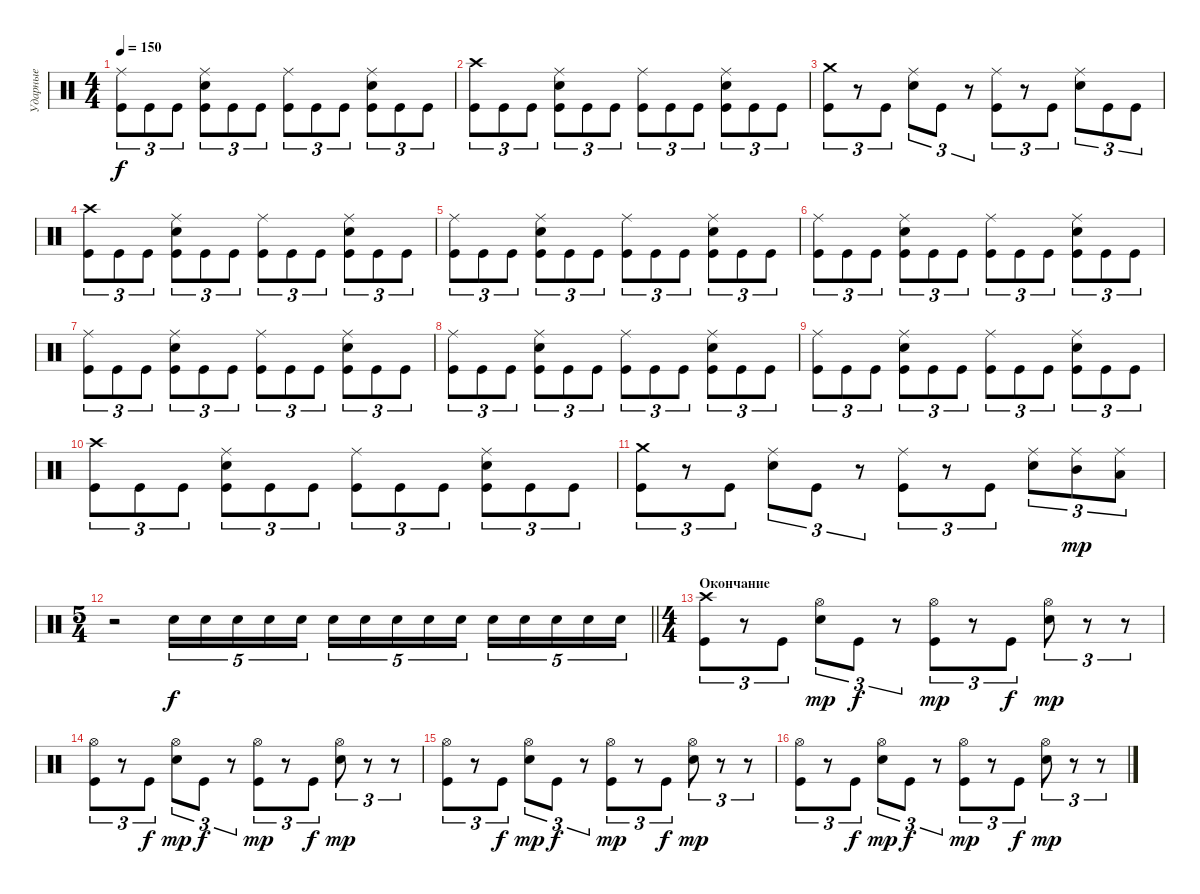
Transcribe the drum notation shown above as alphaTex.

\track ("Ударные" "Ударные") {instrument percussion}
\staff {score}
\articulation defaults
\ts (4 4)
\tempo 150
\clef neutral
\ks c
("Ride (middle)" "Kick (hit)").8{tu (3 2) dy f} "Kick (hit)".8{tu (3 2)} "Kick (hit)".8{tu (3 2)} ("Ride (middle)" "Snare (hit) 2" "Kick (hit)").8{tu (3 2)} "Kick (hit)".8{tu (3 2)} "Kick (hit)".8{tu (3 2)} ("Ride (middle)" "Kick (hit)").8{tu (3 2)} "Kick (hit)".8{tu (3 2)} "Kick (hit)".8{tu (3 2)} ("Ride (middle)" "Snare (hit) 2" "Kick (hit)").8{tu (3 2)} "Kick (hit)".8{tu (3 2)} "Kick (hit)".8{tu (3 2)} |
("Crash high (hit)" "Kick (hit)").8{tu (3 2)} "Kick (hit)".8{tu (3 2)} "Kick (hit)".8{tu (3 2)} ("Ride (middle)" "Snare (hit) 2" "Kick (hit)").8{tu (3 2)} "Kick (hit)".8{tu (3 2)} "Kick (hit)".8{tu (3 2)} ("Ride (middle)" "Kick (hit)").8{tu (3 2)} "Kick (hit)".8{tu (3 2)} "Kick (hit)".8{tu (3 2)} ("Ride (middle)" "Snare (hit) 2" "Kick (hit)").8{tu (3 2)} "Kick (hit)".8{tu (3 2)} "Kick (hit)".8{tu (3 2)} |
("Crash medium (hit)" "Kick (hit)").8{tu (3 2)} r.8{tu (3 2)} "Kick (hit)".8{tu (3 2)} ("Ride (middle)" "Snare (hit) 2").8{tu (3 2)} "Kick (hit)".8{tu (3 2)} r.8{tu (3 2)} ("Ride (middle)" "Kick (hit)").8{tu (3 2)} r.8{tu (3 2)} "Kick (hit)".8{tu (3 2)} ("Ride (middle)" "Snare (hit) 2").8{tu (3 2)} "Kick (hit)".8{tu (3 2)} "Kick (hit)".8{tu (3 2)} |
("Crash high (hit)" "Kick (hit)").8{tu (3 2)} "Kick (hit)".8{tu (3 2)} "Kick (hit)".8{tu (3 2)} ("Ride (middle)" "Snare (hit) 2" "Kick (hit)").8{tu (3 2)} "Kick (hit)".8{tu (3 2)} "Kick (hit)".8{tu (3 2)} ("Ride (middle)" "Kick (hit)").8{tu (3 2)} "Kick (hit)".8{tu (3 2)} "Kick (hit)".8{tu (3 2)} ("Ride (middle)" "Snare (hit) 2" "Kick (hit)").8{tu (3 2)} "Kick (hit)".8{tu (3 2)} "Kick (hit)".8{tu (3 2)} |
("Ride (middle)" "Kick (hit)").8{tu (3 2)} "Kick (hit)".8{tu (3 2)} "Kick (hit)".8{tu (3 2)} ("Ride (middle)" "Snare (hit) 2" "Kick (hit)").8{tu (3 2)} "Kick (hit)".8{tu (3 2)} "Kick (hit)".8{tu (3 2)} ("Ride (middle)" "Kick (hit)").8{tu (3 2)} "Kick (hit)".8{tu (3 2)} "Kick (hit)".8{tu (3 2)} ("Ride (middle)" "Snare (hit) 2" "Kick (hit)").8{tu (3 2)} "Kick (hit)".8{tu (3 2)} "Kick (hit)".8{tu (3 2)} |
("Ride (middle)" "Kick (hit)").8{tu (3 2)} "Kick (hit)".8{tu (3 2)} "Kick (hit)".8{tu (3 2)} ("Ride (middle)" "Snare (hit) 2" "Kick (hit)").8{tu (3 2)} "Kick (hit)".8{tu (3 2)} "Kick (hit)".8{tu (3 2)} ("Ride (middle)" "Kick (hit)").8{tu (3 2)} "Kick (hit)".8{tu (3 2)} "Kick (hit)".8{tu (3 2)} ("Ride (middle)" "Snare (hit) 2" "Kick (hit)").8{tu (3 2)} "Kick (hit)".8{tu (3 2)} "Kick (hit)".8{tu (3 2)} |
("Ride (middle)" "Kick (hit)").8{tu (3 2)} "Kick (hit)".8{tu (3 2)} "Kick (hit)".8{tu (3 2)} ("Ride (middle)" "Snare (hit) 2" "Kick (hit)").8{tu (3 2)} "Kick (hit)".8{tu (3 2)} "Kick (hit)".8{tu (3 2)} ("Ride (middle)" "Kick (hit)").8{tu (3 2)} "Kick (hit)".8{tu (3 2)} "Kick (hit)".8{tu (3 2)} ("Ride (middle)" "Snare (hit) 2" "Kick (hit)").8{tu (3 2)} "Kick (hit)".8{tu (3 2)} "Kick (hit)".8{tu (3 2)} |
("Ride (middle)" "Kick (hit)").8{tu (3 2)} "Kick (hit)".8{tu (3 2)} "Kick (hit)".8{tu (3 2)} ("Ride (middle)" "Snare (hit) 2" "Kick (hit)").8{tu (3 2)} "Kick (hit)".8{tu (3 2)} "Kick (hit)".8{tu (3 2)} ("Ride (middle)" "Kick (hit)").8{tu (3 2)} "Kick (hit)".8{tu (3 2)} "Kick (hit)".8{tu (3 2)} ("Ride (middle)" "Snare (hit) 2" "Kick (hit)").8{tu (3 2)} "Kick (hit)".8{tu (3 2)} "Kick (hit)".8{tu (3 2)} |
("Ride (middle)" "Kick (hit)").8{tu (3 2)} "Kick (hit)".8{tu (3 2)} "Kick (hit)".8{tu (3 2)} ("Ride (middle)" "Snare (hit) 2" "Kick (hit)").8{tu (3 2)} "Kick (hit)".8{tu (3 2)} "Kick (hit)".8{tu (3 2)} ("Ride (middle)" "Kick (hit)").8{tu (3 2)} "Kick (hit)".8{tu (3 2)} "Kick (hit)".8{tu (3 2)} ("Ride (middle)" "Snare (hit) 2" "Kick (hit)").8{tu (3 2)} "Kick (hit)".8{tu (3 2)} "Kick (hit)".8{tu (3 2)} |
("Crash high (hit)" "Kick (hit)").8{tu (3 2)} "Kick (hit)".8{tu (3 2)} "Kick (hit)".8{tu (3 2)} ("Ride (middle)" "Snare (hit) 2" "Kick (hit)").8{tu (3 2)} "Kick (hit)".8{tu (3 2)} "Kick (hit)".8{tu (3 2)} ("Ride (middle)" "Kick (hit)").8{tu (3 2)} "Kick (hit)".8{tu (3 2)} "Kick (hit)".8{tu (3 2)} ("Ride (middle)" "Snare (hit) 2" "Kick (hit)").8{tu (3 2)} "Kick (hit)".8{tu (3 2)} "Kick (hit)".8{tu (3 2)} |
("Crash medium (hit)" "Kick (hit)").8{tu (3 2)} r.8{tu (3 2)} "Kick (hit)".8{tu (3 2)} ("Ride (middle)" "Snare (hit) 2").8{tu (3 2)} "Kick (hit)".8{tu (3 2)} r.8{tu (3 2)} ("Ride (middle)" "Kick (hit)").8{tu (3 2)} r.8{tu (3 2)} "Kick (hit)".8{tu (3 2)} ("Ride (middle)" "Snare (hit) 2").8{tu (3 2)} ("Ride (middle)" "Mid Tom (hit)").8{tu (3 2) dy mp} ("Ride (middle)" "Low Tom (hit)").8{tu (3 2)} |
\ts (5 4)
\barLineRight lightlight
r.2 "Snare (hit) 2".16{tu (5 4) dy f} "Snare (hit) 2".16{tu (5 4)} "Snare (hit) 2".16{tu (5 4)} "Snare (hit) 2".16{tu (5 4)} "Snare (hit) 2".16{tu (5 4)} "Snare (hit) 2".16{tu (5 4)} "Snare (hit) 2".16{tu (5 4)} "Snare (hit) 2".16{tu (5 4)} "Snare (hit) 2".16{tu (5 4)} "Snare (hit) 2".16{tu (5 4)} "Snare (hit) 2".16{tu (5 4)} "Snare (hit) 2".16{tu (5 4)} "Snare (hit) 2".16{tu (5 4)} "Snare (hit) 2".16{tu (5 4)} "Snare (hit) 2".16{tu (5 4)} |
\ts (4 4)
\section ("" "Окончание")
("Crash high (hit)" "Kick (hit)").8{tu (3 2)} r.8{tu (3 2)} "Kick (hit)".8{tu (3 2)} ("Hi-Hat (open)" "Snare (hit) 2").8{tu (3 2) dy mp} "Kick (hit)".8{tu (3 2) dy f} r.8{tu (3 2)} ("Hi-Hat (open)" "Kick (hit)").8{tu (3 2) dy mp} r.8{tu (3 2)} "Kick (hit)".8{tu (3 2) dy f} ("Hi-Hat (open)" "Snare (hit) 2").8{tu (3 2) dy mp} r.8{tu (3 2)} r.8{tu (3 2)} |
("Hi-Hat (open)" "Kick (hit)").8{tu (3 2)} r.8{tu (3 2)} "Kick (hit)".8{tu (3 2) dy f} ("Hi-Hat (open)" "Snare (hit) 2").8{tu (3 2) dy mp} "Kick (hit)".8{tu (3 2) dy f} r.8{tu (3 2)} ("Hi-Hat (open)" "Kick (hit)").8{tu (3 2) dy mp} r.8{tu (3 2)} "Kick (hit)".8{tu (3 2) dy f} ("Hi-Hat (open)" "Snare (hit) 2").8{tu (3 2) dy mp} r.8{tu (3 2)} r.8{tu (3 2)} |
("Hi-Hat (open)" "Kick (hit)").8{tu (3 2)} r.8{tu (3 2)} "Kick (hit)".8{tu (3 2) dy f} ("Hi-Hat (open)" "Snare (hit) 2").8{tu (3 2) dy mp} "Kick (hit)".8{tu (3 2) dy f} r.8{tu (3 2)} ("Hi-Hat (open)" "Kick (hit)").8{tu (3 2) dy mp} r.8{tu (3 2)} "Kick (hit)".8{tu (3 2) dy f} ("Hi-Hat (open)" "Snare (hit) 2").8{tu (3 2) dy mp} r.8{tu (3 2)} r.8{tu (3 2)} |
("Hi-Hat (open)" "Kick (hit)").8{tu (3 2)} r.8{tu (3 2)} "Kick (hit)".8{tu (3 2) dy f} ("Hi-Hat (open)" "Snare (hit) 2").8{tu (3 2) dy mp} "Kick (hit)".8{tu (3 2) dy f} r.8{tu (3 2)} ("Hi-Hat (open)" "Kick (hit)").8{tu (3 2) dy mp} r.8{tu (3 2)} "Kick (hit)".8{tu (3 2) dy f} ("Hi-Hat (open)" "Snare (hit) 2").8{tu (3 2) dy mp} r.8{tu (3 2)} r.8{tu (3 2)}
